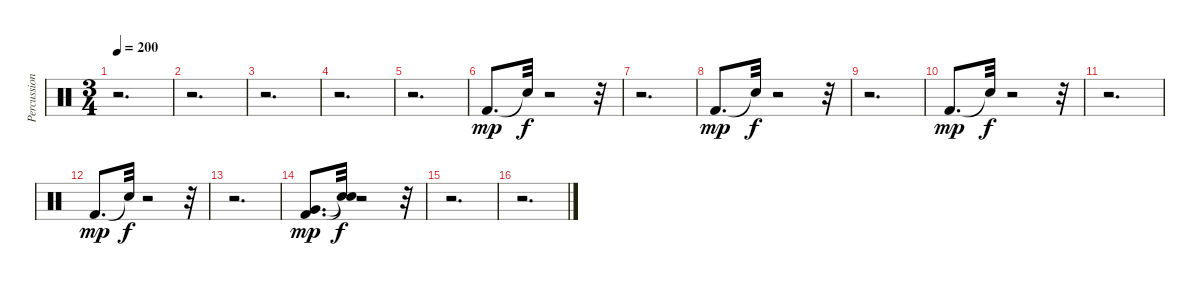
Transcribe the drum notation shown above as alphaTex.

\track ("Percussion." "Percussion") {instrument percussion}
\staff {score}
\articulation defaults
\ts (3 4)
\tempo 200
\clef neutral
\ks c
r.2{d dy f} |
r.2{d} |
r.2{d} |
r.2{d} |
r.2{d} |
"Kick (hit) 2".8{d dy mp} "Snare (hit)"{t}.32{dy f} r.2 r.32 |
r.2{d} |
"Kick (hit) 2".8{d dy mp} "Snare (hit)"{t}.32{dy f} r.2 r.32 |
r.2{d} |
"Kick (hit) 2".8{d dy mp} "Snare (hit)"{t}.32{dy f} r.2 r.32 |
r.2{d} |
"Kick (hit) 2".8{d dy mp} "Snare (hit)"{t}.32{dy f} r.2 r.32 |
r.2{d} |
("Very Low Tom (hit)" "Kick (hit) 2").8{d dy mp} ("Snare (hit)"{t} "Snare (hit)"{t}).32{dy f} r.2 r.32 |
r.2{d} |
r.2{d}
